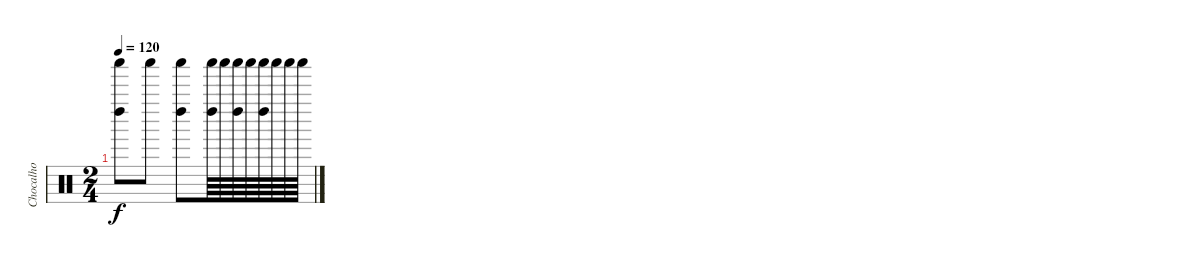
\track ("Chocalho" "Chocalho") {instrument percussion}
\staff {score}
\articulation defaults
\ts (2 4)
\tempo 120
\clef neutral
\ks c
("Shaker (hit)" "Left Maraca (hit)").8{dy f} "Shaker (hit)".8 ("Shaker (hit)" "Left Maraca (hit)").8 ("Shaker (hit)" "Left Maraca (hit)").64 "Shaker (hit)".64 ("Shaker (hit)" "Left Maraca (hit)").64 "Shaker (hit)".64 ("Shaker (hit)" "Left Maraca (hit)").64 "Shaker (hit)".64 "Shaker (hit)".64 "Shaker (hit)".64
